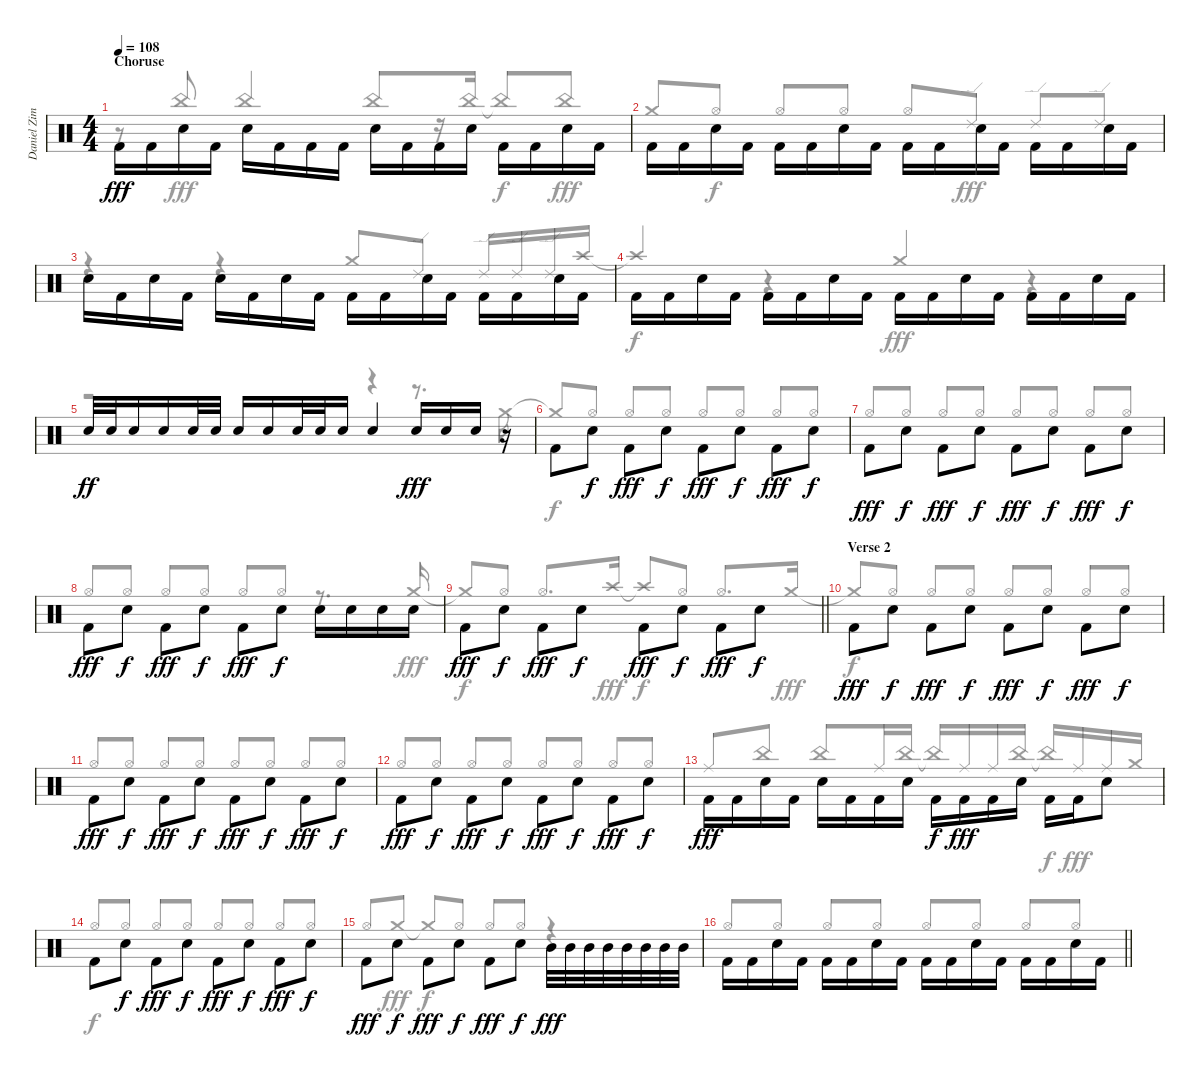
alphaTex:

\track ("Daniel Zimmermann Drums" "Daniel Zim") {instrument percussion}
\staff {score}
\articulation defaults
\voice
\ts (4 4)
\section ("" "Choruse")
\tempo 108
\clef neutral
\ks c "Kick (hit) 2".16{dy fff beam Down} "Kick (hit) 2".16{beam Down} "Snare (hit) 2".16{beam Down} "Kick (hit) 2".16{beam Down} "Snare (hit) 2".16{beam Down} "Kick (hit) 2".16{beam Down} "Kick (hit) 2".16{beam Down} "Kick (hit) 2".16{beam Down} "Snare (hit) 2".16{beam Down} "Kick (hit) 2".16{beam Down} "Kick (hit) 2".16{beam Down} "Snare (hit) 2".16{beam Down} "Kick (hit) 2".16{beam Down} "Kick (hit) 2".16{beam Down} "Snare (hit) 2".16{beam Down} "Kick (hit) 2".16{beam Down}
|
"Kick (hit) 2".16{beam Down} "Kick (hit) 2".16{beam Down} "Snare (hit) 2".16{beam Down} "Kick (hit) 2".16{beam Down} "Kick (hit) 2".16{beam Down} "Kick (hit) 2".16{beam Down} "Snare (hit) 2".16{beam Down} "Kick (hit) 2".16{beam Down} "Kick (hit) 2".16{beam Down} "Kick (hit) 2".16{beam Down} "Snare (hit) 2".16{beam Down} "Kick (hit) 2".16{beam Down} "Kick (hit) 2".16{beam Down} "Kick (hit) 2".16{beam Down} "Snare (hit) 2".16{beam Down} "Kick (hit) 2".16{beam Down} |
"Snare (hit) 2".16{beam Down} "Kick (hit) 2".16{beam Down} "Snare (hit) 2".16{beam Down} "Kick (hit) 2".16{beam Down} "Snare (hit) 2".16{beam Down} "Kick (hit) 2".16{beam Down} "Snare (hit) 2".16{beam Down} "Kick (hit) 2".16{beam Down} "Kick (hit) 2".16{beam Down} "Kick (hit) 2".16{beam Down} "Snare (hit) 2".16{beam Down} "Kick (hit) 2".16{beam Down} "Kick (hit) 2".16{beam Down} "Kick (hit) 2".16{beam Down} "Snare (hit) 2".16{beam Down} "Kick (hit) 2".16{beam Down} |
"Kick (hit) 2".16{beam Down} "Kick (hit) 2".16{beam Down} "Snare (hit) 2".16{beam Down} "Kick (hit) 2".16{beam Down} "Kick (hit) 2".16{beam Down} "Kick (hit) 2".16{beam Down} "Snare (hit) 2".16{beam Down} "Kick (hit) 2".16{beam Down} "Kick (hit) 2".16{beam Down} "Kick (hit) 2".16{beam Down} "Snare (hit) 2".16{beam Down} "Kick (hit) 2".16{beam Down} "Kick (hit) 2".16{beam Down} "Kick (hit) 2".16{beam Down} "Snare (hit) 2".16{beam Down} "Kick (hit) 2".16{beam Down} |
"Snare (hit) 2".32{dy ff} "Snare (hit) 2".32 "Snare (hit) 2".16 "Snare (hit) 2".16 "Snare (hit) 2".32 "Snare (hit) 2".32 "Snare (hit) 2".16 "Snare (hit) 2".16 "Snare (hit) 2".32 "Snare (hit) 2".32 "Snare (hit) 2".16 "Snare (hit) 2".4 "Snare (hit) 2".16{dy fff} "Snare (hit) 2".16 "Snare (hit) 2".16 r.16 |
"Kick (hit) 2".8{beam Down} "Snare (hit) 2".8{dy f beam Down} "Kick (hit) 2".8{dy fff beam Down} "Snare (hit) 2".8{dy f beam Down} "Kick (hit) 2".8{dy fff beam Down} "Snare (hit) 2".8{dy f beam Down} "Kick (hit) 2".8{dy fff beam Down} "Snare (hit) 2".8{dy f beam Down} |
"Kick (hit) 2".8{dy fff beam Down} "Snare (hit) 2".8{dy f beam Down} "Kick (hit) 2".8{dy fff beam Down} "Snare (hit) 2".8{dy f beam Down} "Kick (hit) 2".8{dy fff beam Down} "Snare (hit) 2".8{dy f beam Down} "Kick (hit) 2".8{dy fff beam Down} "Snare (hit) 2".8{dy f beam Down} |
"Kick (hit) 2".8{dy fff beam Down} "Snare (hit) 2".8{dy f beam Down} "Kick (hit) 2".8{dy fff beam Down} "Snare (hit) 2".8{dy f beam Down} "Kick (hit) 2".8{dy fff beam Down} "Snare (hit) 2".8{dy f beam Down} "Snare (hit) 2".16{beam Down} "Snare (hit) 2".16{beam Down} "Snare (hit) 2".16{beam Down} "Snare (hit) 2".16{beam Down} |
\barLineRight lightlight "Kick (hit) 2".8{dy fff beam Down} "Snare (hit) 2".8{dy f beam Down} "Kick (hit) 2".8{dy fff beam Down} "Snare (hit) 2".8{dy f beam Down} "Kick (hit) 2".8{dy fff beam Down} "Snare (hit) 2".8{dy f beam Down} "Kick (hit) 2".8{dy fff beam Down} "Snare (hit) 2".8{dy f beam Down}
|
\section ("" "Verse 2")
"Kick (hit) 2".8{dy fff beam Down} "Snare (hit) 2".8{dy f beam Down} "Kick (hit) 2".8{dy fff beam Down} "Snare (hit) 2".8{dy f beam Down} "Kick (hit) 2".8{dy fff beam Down} "Snare (hit) 2".8{dy f beam Down} "Kick (hit) 2".8{dy fff beam Down} "Snare (hit) 2".8{dy f beam Down} |
"Kick (hit) 2".8{dy fff beam Down} "Snare (hit) 2".8{dy f beam Down} "Kick (hit) 2".8{dy fff beam Down} "Snare (hit) 2".8{dy f beam Down} "Kick (hit) 2".8{dy fff beam Down} "Snare (hit) 2".8{dy f beam Down} "Kick (hit) 2".8{dy fff beam Down} "Snare (hit) 2".8{dy f beam Down} |
"Kick (hit) 2".8{dy fff beam Down} "Snare (hit) 2".8{dy f beam Down} "Kick (hit) 2".8{dy fff beam Down} "Snare (hit) 2".8{dy f beam Down} "Kick (hit) 2".8{dy fff beam Down} "Snare (hit) 2".8{dy f beam Down} "Kick (hit) 2".8{dy fff beam Down} "Snare (hit) 2".8{dy f beam Down} |
"Kick (hit) 2".16{dy fff beam Down} "Kick (hit) 2".16{beam Down} "Snare (hit) 2".16{beam Down} "Kick (hit) 2".16{beam Down} "Snare (hit) 2".16{beam Down} "Kick (hit) 2".16{beam Down} "Kick (hit) 2".16{beam Down} "Snare (hit) 2".16{beam Down} "Kick (hit) 2".16{dy f beam Down} "Kick (hit) 2".16{dy fff beam Down} "Kick (hit) 2".16{beam Down} "Snare (hit) 2".16{beam Down} "Kick (hit) 2".16{beam Down} "Kick (hit) 2".16{beam Down} "Snare (hit) 2".8{beam Down} |
"Kick (hit) 2".8{beam Down} "Snare (hit) 2".8{dy f beam Down} "Kick (hit) 2".8{dy fff beam Down} "Snare (hit) 2".8{dy f beam Down} "Kick (hit) 2".8{dy fff beam Down} "Snare (hit) 2".8{dy f beam Down} "Kick (hit) 2".8{dy fff beam Down} "Snare (hit) 2".8{dy f beam Down} |
"Kick (hit) 2".8{dy fff beam Down} "Snare (hit) 2".8{dy f beam Down} "Kick (hit) 2".8{dy fff beam Down} "Snare (hit) 2".8{dy f beam Down} "Kick (hit) 2".8{dy fff beam Down} "Snare (hit) 2".8{dy f beam Down} "Mid Tom (hit)".32{dy fff beam Down} "Mid Tom (hit)".32{beam Down} "Mid Tom (hit)".32{beam Down} "Mid Tom (hit)".32{beam Down} "Mid Tom (hit)".32{beam Down} "Mid Tom (hit)".32{beam Down} "Mid Tom (hit)".32{beam Down} "Mid Tom (hit)".32{beam Down} |
\barLineRight lightlight "Kick (hit) 2".16{beam Down} "Kick (hit) 2".16{beam Down} "Snare (hit) 2".16{beam Down} "Kick (hit) 2".16{beam Down} "Kick (hit) 2".16{beam Down} "Kick (hit) 2".16{beam Down} "Snare (hit) 2".16{beam Down} "Kick (hit) 2".16{beam Down} "Kick (hit) 2".16{beam Down} "Kick (hit) 2".16{beam Down} "Snare (hit) 2".16{beam Down} "Kick (hit) 2".16{beam Down} "Kick (hit) 2".16{beam Down} "Kick (hit) 2".16{beam Down} "Snare (hit) 2".16{beam Down} "Kick (hit) 2".16{beam Down}
\voice
\clef neutral
\ottava regular
\simile none
\ks c
r.8{dy fff} "China (hit)".8{beam Up} "China (hit)".4{beam Up} "China (hit)".8{beam Up} r.16 "China (hit)".16{beam Up} "China (hit)"{t}.8{dy f beam Up} "China (hit)".8{dy fff beam Up} |
"Crash medium (hit)".8{beam Up} "Hi-Hat (open)".8{dy f beam Up} "Hi-Hat (open)".8{beam Up} "Hi-Hat (open)".8{beam Up} "Hi-Hat (open)".8{beam Up} "Ride (edge) 2".8{dy fff beam Up} "Ride (edge) 2".8{beam Up} "Ride (edge) 2".8{beam Up} |
r.4 r.4 "Crash medium (hit)".8{beam Up} "Ride (edge) 2".8{beam Up} "Ride (edge) 2".16{beam Up} "Ride (edge) 2".16{beam Up} "Ride (edge) 2".16{beam Up} "Crash high (hit)".16{beam Up} |
"Crash high (hit)"{t}.4{dy f beam Up} r.4 "Crash medium (hit)".4{dy fff beam Up} r.4 |
r.2 r.4 r.8{d} "Crash medium (hit)".16 |
"Crash medium (hit)"{t}.8{dy f beam Up} "Hi-Hat (open)".8{beam Up} "Hi-Hat (open)".8{beam Up} "Hi-Hat (open)".8{beam Up} "Hi-Hat (open)".8{beam Up} "Hi-Hat (open)".8{beam Up} "Hi-Hat (open)".8{beam Up} "Hi-Hat (open)".8{beam Up} |
"Hi-Hat (open)".8{beam Up} "Hi-Hat (open)".8{beam Up} "Hi-Hat (open)".8{beam Up} "Hi-Hat (open)".8{beam Up} "Hi-Hat (open)".8{beam Up} "Hi-Hat (open)".8{beam Up} "Hi-Hat (open)".8{beam Up} "Hi-Hat (open)".8{beam Up} |
"Hi-Hat (open)".8{beam Up} "Hi-Hat (open)".8{beam Up} "Hi-Hat (open)".8{beam Up} "Hi-Hat (open)".8{beam Up} "Hi-Hat (open)".8{beam Up} "Hi-Hat (open)".8{beam Up} r.8{d beam Up} "Crash medium (hit)".16{dy fff beam Up} |
\barLineRight lightlight "Crash medium (hit)"{t}.8{dy f beam Up} "Hi-Hat (open)".8{beam Up} "Hi-Hat (open)".8{d beam Up} "Crash high (hit)".16{dy fff beam Up} "Crash high (hit)"{t}.8{dy f beam Up} "Hi-Hat (open)".8{beam Up} "Hi-Hat (open)".8{d beam Up} "Crash medium (hit)".16{dy fff beam Up}
|
"Crash medium (hit)"{t}.8{dy f beam Up} "Hi-Hat (open)".8{beam Up} "Hi-Hat (open)".8{beam Up} "Hi-Hat (open)".8{beam Up} "Hi-Hat (open)".8{beam Up} "Hi-Hat (open)".8{beam Up} "Hi-Hat (open)".8{beam Up} "Hi-Hat (open)".8{beam Up} |
"Hi-Hat (open)".8{beam Up} "Hi-Hat (open)".8{beam Up} "Hi-Hat (open)".8{beam Up} "Hi-Hat (open)".8{beam Up} "Hi-Hat (open)".8{beam Up} "Hi-Hat (open)".8{beam Up} "Hi-Hat (open)".8{beam Up} "Hi-Hat (open)".8{beam Up} |
"Hi-Hat (open)".8{beam Up} "Hi-Hat (open)".8{beam Up} "Hi-Hat (open)".8{beam Up} "Hi-Hat (open)".8{beam Up} "Hi-Hat (open)".8{beam Up} "Hi-Hat (open)".8{beam Up} "Hi-Hat (open)".8{beam Up} "Hi-Hat (open)".8{beam Up} |
"Ride (middle)".8{dy fff beam Up} "China (hit)".8{beam Up} "China (hit)".8{beam Up} "Ride (middle)".16{beam Up} "China (hit)".16{beam Up} "China (hit)"{t}.16{dy f beam Up} "Ride (middle)".16{dy fff beam Up} "Ride (middle)".16{beam Up} "China (hit)".16{beam Up} "China (hit)"{t}.16{dy f beam Up} "Ride (middle)".16{dy fff beam Up} "Ride (middle)".16{beam Up} "Crash medium (hit)".16{beam Up} |
"Hi-Hat (open)".8{dy f beam Up} "Hi-Hat (open)".8{beam Up} "Hi-Hat (open)".8{beam Up} "Hi-Hat (open)".8{beam Up} "Hi-Hat (open)".8{beam Up} "Hi-Hat (open)".8{beam Up} "Hi-Hat (open)".8{beam Up} "Hi-Hat (open)".8{beam Up} |
"Hi-Hat (open)".8{beam Up} "Crash medium (hit)".8{dy fff beam Up} "Crash medium (hit)"{t}.8{dy f beam Up} "Hi-Hat (open)".8{beam Up} "Hi-Hat (open)".8{beam Up} "Hi-Hat (open)".8{beam Up} r.4 |
\barLineRight lightlight "Hi-Hat (open)".8{beam Up} "Hi-Hat (open)".8{beam Up} "Hi-Hat (open)".8{beam Up} "Hi-Hat (open)".8{beam Up} "Hi-Hat (open)".8{beam Up} "Hi-Hat (open)".8{beam Up} "Hi-Hat (open)".8{beam Up} "Hi-Hat (open)".8{beam Up}
